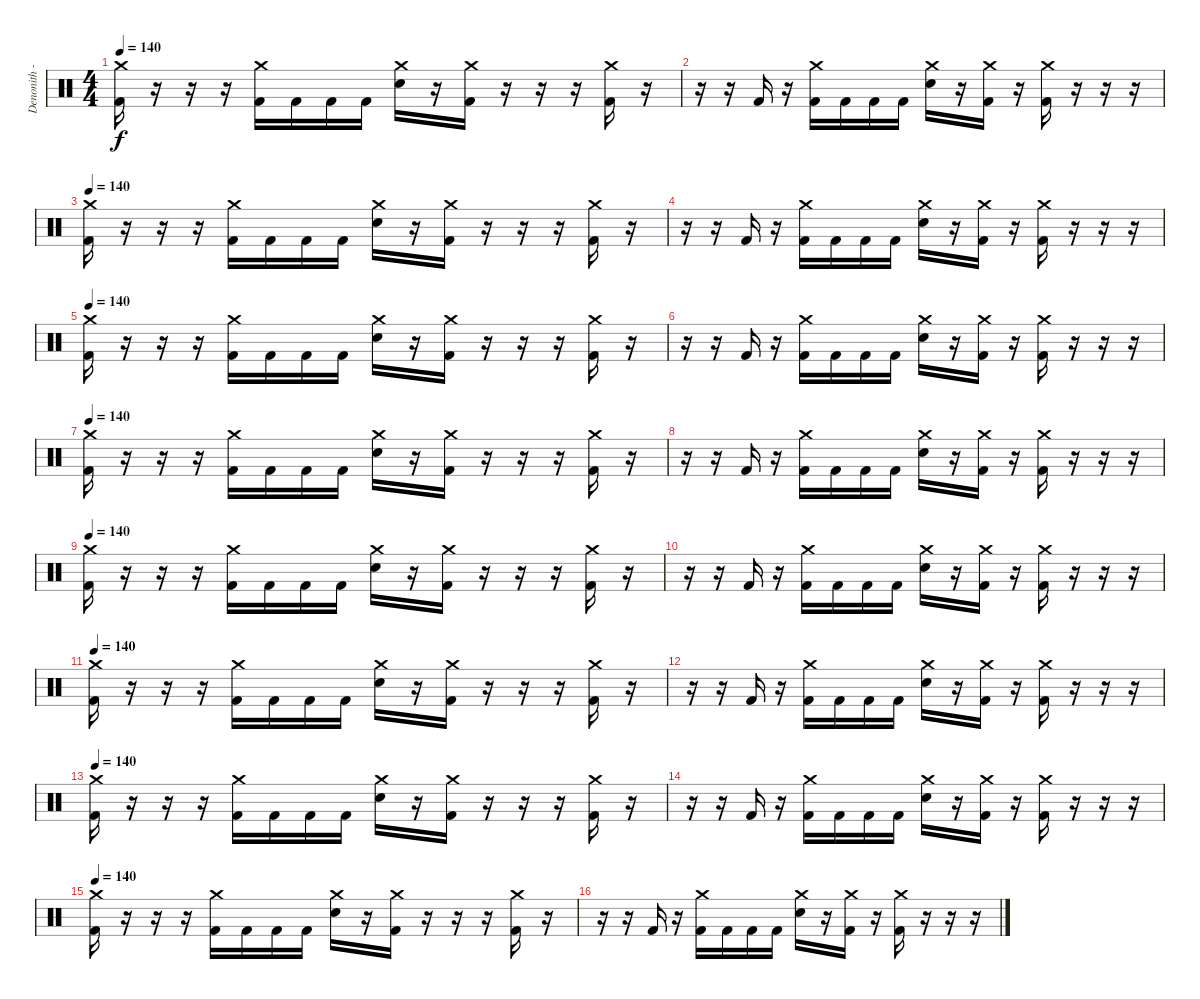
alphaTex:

\track ("Denonith - Spyros" "Denonith -") {instrument percussion}
\staff {score}
\articulation defaults
\ts (4 4)
\tempo 140
\clef neutral
\ks c
("Crash medium (hit)" "Kick (hit) 2").16{dy f} r.16 r.16 r.16 ("Crash medium (hit)" "Kick (hit) 2").16 "Kick (hit) 2".16 "Kick (hit) 2".16 "Kick (hit) 2".16 ("Crash medium (hit)" "Electric Snare (hit)").16 r.16 ("Crash medium (hit)" "Kick (hit) 2").16 r.16 r.16 r.16 ("Crash medium (hit)" "Kick (hit) 2").16 r.16 |
r.16 r.16 "Kick (hit) 2".16 r.16 ("Crash medium (hit)" "Kick (hit) 2").16 "Kick (hit) 2".16 "Kick (hit) 2".16 "Kick (hit) 2".16 ("Crash medium (hit)" "Electric Snare (hit)").16 r.16 ("Crash medium (hit)" "Kick (hit) 2").16 r.16 ("Crash medium (hit)" "Kick (hit) 2").16 r.16 r.16 r.16 |
\tempo 140
("Crash medium (hit)" "Kick (hit) 2").16 r.16 r.16 r.16 ("Crash medium (hit)" "Kick (hit) 2").16 "Kick (hit) 2".16 "Kick (hit) 2".16 "Kick (hit) 2".16 ("Crash medium (hit)" "Electric Snare (hit)").16 r.16 ("Crash medium (hit)" "Kick (hit) 2").16 r.16 r.16 r.16 ("Crash medium (hit)" "Kick (hit) 2").16 r.16 |
r.16 r.16 "Kick (hit) 2".16 r.16 ("Crash medium (hit)" "Kick (hit) 2").16 "Kick (hit) 2".16 "Kick (hit) 2".16 "Kick (hit) 2".16 ("Crash medium (hit)" "Electric Snare (hit)").16 r.16 ("Crash medium (hit)" "Kick (hit) 2").16 r.16 ("Crash medium (hit)" "Kick (hit) 2").16 r.16 r.16 r.16 |
\tempo 140
("Crash medium (hit)" "Kick (hit) 2").16 r.16 r.16 r.16 ("Crash medium (hit)" "Kick (hit) 2").16 "Kick (hit) 2".16 "Kick (hit) 2".16 "Kick (hit) 2".16 ("Crash medium (hit)" "Electric Snare (hit)").16 r.16 ("Crash medium (hit)" "Kick (hit) 2").16 r.16 r.16 r.16 ("Crash medium (hit)" "Kick (hit) 2").16 r.16 |
r.16 r.16 "Kick (hit) 2".16 r.16 ("Crash medium (hit)" "Kick (hit) 2").16 "Kick (hit) 2".16 "Kick (hit) 2".16 "Kick (hit) 2".16 ("Crash medium (hit)" "Electric Snare (hit)").16 r.16 ("Crash medium (hit)" "Kick (hit) 2").16 r.16 ("Crash medium (hit)" "Kick (hit) 2").16 r.16 r.16 r.16 |
\tempo 140
("Crash medium (hit)" "Kick (hit) 2").16 r.16 r.16 r.16 ("Crash medium (hit)" "Kick (hit) 2").16 "Kick (hit) 2".16 "Kick (hit) 2".16 "Kick (hit) 2".16 ("Crash medium (hit)" "Electric Snare (hit)").16 r.16 ("Crash medium (hit)" "Kick (hit) 2").16 r.16 r.16 r.16 ("Crash medium (hit)" "Kick (hit) 2").16 r.16 |
r.16 r.16 "Kick (hit) 2".16 r.16 ("Crash medium (hit)" "Kick (hit) 2").16 "Kick (hit) 2".16 "Kick (hit) 2".16 "Kick (hit) 2".16 ("Crash medium (hit)" "Electric Snare (hit)").16 r.16 ("Crash medium (hit)" "Kick (hit) 2").16 r.16 ("Crash medium (hit)" "Kick (hit) 2").16 r.16 r.16 r.16 |
\tempo 140
("Crash medium (hit)" "Kick (hit) 2").16 r.16 r.16 r.16 ("Crash medium (hit)" "Kick (hit) 2").16 "Kick (hit) 2".16 "Kick (hit) 2".16 "Kick (hit) 2".16 ("Crash medium (hit)" "Electric Snare (hit)").16 r.16 ("Crash medium (hit)" "Kick (hit) 2").16 r.16 r.16 r.16 ("Crash medium (hit)" "Kick (hit) 2").16 r.16 |
r.16 r.16 "Kick (hit) 2".16 r.16 ("Crash medium (hit)" "Kick (hit) 2").16 "Kick (hit) 2".16 "Kick (hit) 2".16 "Kick (hit) 2".16 ("Crash medium (hit)" "Electric Snare (hit)").16 r.16 ("Crash medium (hit)" "Kick (hit) 2").16 r.16 ("Crash medium (hit)" "Kick (hit) 2").16 r.16 r.16 r.16 |
\tempo 140
("Crash medium (hit)" "Kick (hit) 2").16 r.16 r.16 r.16 ("Crash medium (hit)" "Kick (hit) 2").16 "Kick (hit) 2".16 "Kick (hit) 2".16 "Kick (hit) 2".16 ("Crash medium (hit)" "Electric Snare (hit)").16 r.16 ("Crash medium (hit)" "Kick (hit) 2").16 r.16 r.16 r.16 ("Crash medium (hit)" "Kick (hit) 2").16 r.16 |
r.16 r.16 "Kick (hit) 2".16 r.16 ("Crash medium (hit)" "Kick (hit) 2").16 "Kick (hit) 2".16 "Kick (hit) 2".16 "Kick (hit) 2".16 ("Crash medium (hit)" "Electric Snare (hit)").16 r.16 ("Crash medium (hit)" "Kick (hit) 2").16 r.16 ("Crash medium (hit)" "Kick (hit) 2").16 r.16 r.16 r.16 |
\tempo 140
("Crash medium (hit)" "Kick (hit) 2").16 r.16 r.16 r.16 ("Crash medium (hit)" "Kick (hit) 2").16 "Kick (hit) 2".16 "Kick (hit) 2".16 "Kick (hit) 2".16 ("Crash medium (hit)" "Electric Snare (hit)").16 r.16 ("Crash medium (hit)" "Kick (hit) 2").16 r.16 r.16 r.16 ("Crash medium (hit)" "Kick (hit) 2").16 r.16 |
r.16 r.16 "Kick (hit) 2".16 r.16 ("Crash medium (hit)" "Kick (hit) 2").16 "Kick (hit) 2".16 "Kick (hit) 2".16 "Kick (hit) 2".16 ("Crash medium (hit)" "Electric Snare (hit)").16 r.16 ("Crash medium (hit)" "Kick (hit) 2").16 r.16 ("Crash medium (hit)" "Kick (hit) 2").16 r.16 r.16 r.16 |
\tempo 140
("Crash medium (hit)" "Kick (hit) 2").16 r.16 r.16 r.16 ("Crash medium (hit)" "Kick (hit) 2").16 "Kick (hit) 2".16 "Kick (hit) 2".16 "Kick (hit) 2".16 ("Crash medium (hit)" "Electric Snare (hit)").16 r.16 ("Crash medium (hit)" "Kick (hit) 2").16 r.16 r.16 r.16 ("Crash medium (hit)" "Kick (hit) 2").16 r.16 |
r.16 r.16 "Kick (hit) 2".16 r.16 ("Crash medium (hit)" "Kick (hit) 2").16 "Kick (hit) 2".16 "Kick (hit) 2".16 "Kick (hit) 2".16 ("Crash medium (hit)" "Electric Snare (hit)").16 r.16 ("Crash medium (hit)" "Kick (hit) 2").16 r.16 ("Crash medium (hit)" "Kick (hit) 2").16 r.16 r.16 r.16
